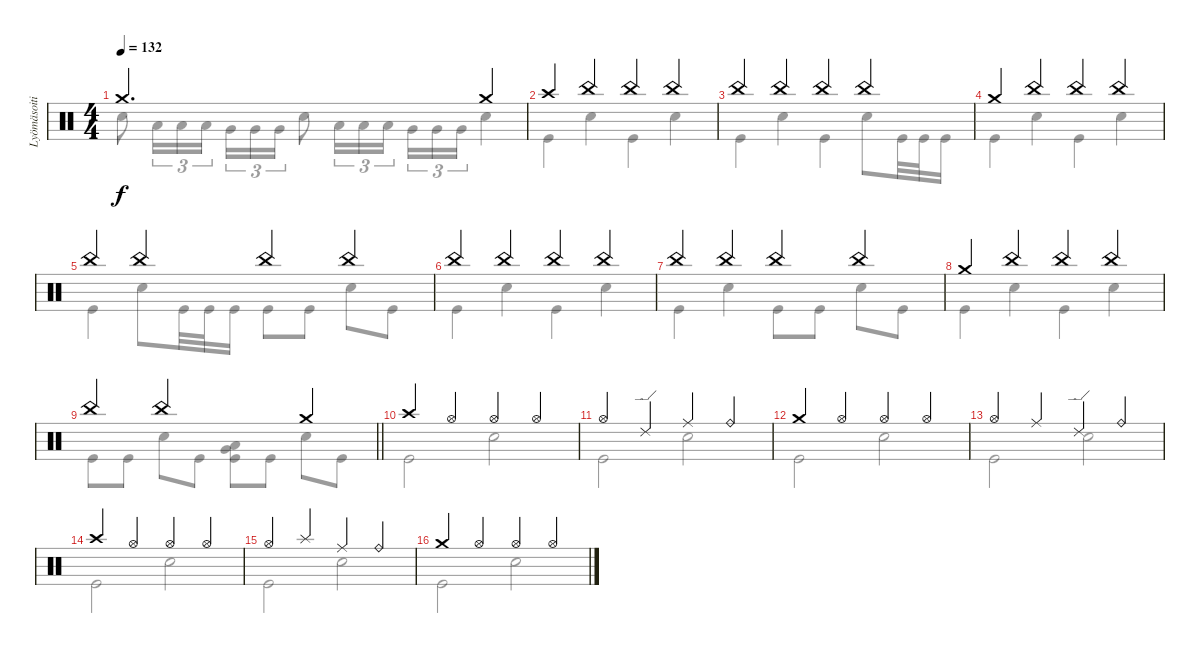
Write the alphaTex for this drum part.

\track ("Lyömäsoitin" "Lyömäsoiti") {instrument percussion}
\staff {score}
\articulation defaults
\voice
\ts (4 4)
\tempo 132
\clef neutral
\ks c "Crash medium (hit)".2{d dy f} "Crash medium (hit)".4
|
"Crash high (hit)".4 "China (hit)".4 "China (hit)".4 "China (hit)".4 |
"China (hit)".4 "China (hit)".4 "China (hit)".4 "China (hit)".4 |
"Crash medium (hit)".4 "China (hit)".4 "China (hit)".4 "China (hit)".4 |
"China (hit)".4 "China (hit)".4 "China (hit)".4 "China (hit)".4 |
"China (hit)".4 "China (hit)".4 "China (hit)".4 "China (hit)".4 |
"China (hit)".4 "China (hit)".4 "China (hit)".4 "China (hit)".4 |
"Crash medium (hit)".4 "China (hit)".4 "China (hit)".4 "China (hit)".4 |
\barLineRight lightlight "China (hit)".4 "China (hit)".2 "Crash medium (hit)".4
|
\section ("" "")
"Crash high (hit)".4 "Hi-Hat (open)".4 "Hi-Hat (open)".4 "Hi-Hat (open)".4 |
"Hi-Hat (open)".4 "Ride (edge) 2".4 "Ride (middle)".4 "Ride (bell)".4 |
"Crash medium (hit)".4 "Hi-Hat (open)".4 "Hi-Hat (open)".4 "Hi-Hat (open)".4 |
"Hi-Hat (open)".4 "Ride (middle)".4 "Ride (edge) 2".4 "Ride (bell)".4 |
"Crash high (hit)".4 "Hi-Hat (open)".4 "Hi-Hat (open)".4 "Hi-Hat (open)".4 |
"Hi-Hat (open)".4 "Splash (hit)".4 "Ride (middle)".4 "Ride (bell)".4 |
"Crash medium (hit)".4 "Hi-Hat (open)".4 "Hi-Hat (open)".4 "Hi-Hat (open)".4
\voice
\clef neutral
\ottava regular
\simile none
\ks c "Electric Snare (hit)".8{dy f} "Low Tom (hit)".16{tu (3 2)} "Low Tom (hit)".16{tu (3 2)} "Low Tom (hit)".16{tu (3 2)} "Very Low Tom (hit)".16{tu (3 2)} "Very Low Tom (hit)".16{tu (3 2)} "Very Low Tom (hit)".16{tu (3 2)} "Electric Snare (hit)".8 "Low Tom (hit)".16{tu (3 2)} "Low Tom (hit)".16{tu (3 2)} "Low Tom (hit)".16{tu (3 2) beam splitsecondary} "Very Low Tom (hit)".16{tu (3 2)} "Very Low Tom (hit)".16{tu (3 2)} "Very Low Tom (hit)".16{tu (3 2)} "Electric Snare (hit)".4
|
"Kick (hit)".4 "Electric Snare (hit)".4 "Kick (hit)".4 "Electric Snare (hit)".4 |
"Kick (hit)".4 "Electric Snare (hit)".4 "Kick (hit)".4 "Electric Snare (hit)".8 "Kick (hit)".32 "Kick (hit)".32 "Kick (hit)".16 |
"Kick (hit)".4 "Electric Snare (hit)".4 "Kick (hit)".4 "Electric Snare (hit)".4 |
"Kick (hit)".4 "Electric Snare (hit)".8 "Kick (hit)".32 "Kick (hit)".32 "Kick (hit)".16 "Kick (hit)".8 "Kick (hit)".8 "Electric Snare (hit)".8 "Kick (hit)".8 |
"Kick (hit)".4 "Electric Snare (hit)".4 "Kick (hit)".4 "Electric Snare (hit)".4 |
"Kick (hit)".4 "Electric Snare (hit)".4 "Kick (hit)".8 "Kick (hit)".8 "Electric Snare (hit)".8 "Kick (hit)".8 |
"Kick (hit)".4 "Electric Snare (hit)".4 "Kick (hit)".4 "Electric Snare (hit)".4 |
\barLineRight lightlight "Kick (hit)".8 "Kick (hit)".8 "Electric Snare (hit)".8 "Kick (hit)".8
("Very Low Tom (hit)" "Low Floor Tom (hit)" "Kick (hit)").8 "Kick (hit)".8 "Electric Snare (hit)".8 "Kick (hit)".8 |
"Kick (hit)".2 "Electric Snare (hit)".2 |
"Kick (hit)".2 "Electric Snare (hit)".2 |
"Kick (hit)".2 "Electric Snare (hit)".2 |
"Kick (hit)".2 "Electric Snare (hit)".2 |
"Kick (hit)".2 "Electric Snare (hit)".2 |
"Kick (hit)".2 "Electric Snare (hit)".2 |
"Kick (hit)".2 "Electric Snare (hit)".2
